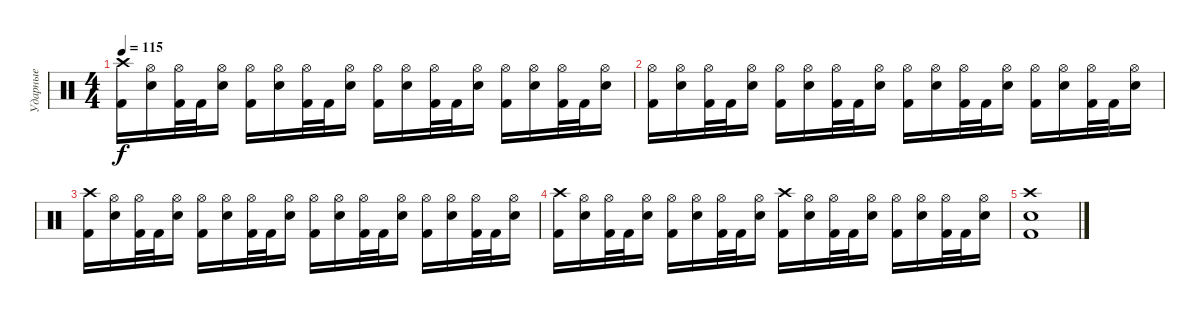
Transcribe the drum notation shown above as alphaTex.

\track ("Ударные" "Ударные") {instrument percussion}
\staff {score}
\articulation defaults
\ts (4 4)
\tempo 115
\clef neutral
\ks c
("Crash high (hit)" "Kick (hit) 2").16{dy f} ("Hi-Hat (open)" "Electric Snare (hit)").16 ("Hi-Hat (open)" "Kick (hit) 2").32 "Kick (hit) 2".32 ("Hi-Hat (open)" "Electric Snare (hit)").16 ("Hi-Hat (open)" "Kick (hit) 2").16 ("Hi-Hat (open)" "Electric Snare (hit)").16 ("Hi-Hat (open)" "Kick (hit) 2").32 "Kick (hit) 2".32 ("Hi-Hat (open)" "Electric Snare (hit)").16 ("Hi-Hat (open)" "Kick (hit) 2").16 ("Hi-Hat (open)" "Electric Snare (hit)").16 ("Hi-Hat (open)" "Kick (hit) 2").32 "Kick (hit) 2".32 ("Hi-Hat (open)" "Electric Snare (hit)").16 ("Hi-Hat (open)" "Kick (hit) 2").16 ("Hi-Hat (open)" "Electric Snare (hit)").16 ("Hi-Hat (open)" "Kick (hit) 2").32 "Kick (hit) 2".32 ("Hi-Hat (open)" "Electric Snare (hit)").16 |
("Hi-Hat (open)" "Kick (hit) 2").16 ("Hi-Hat (open)" "Electric Snare (hit)").16 ("Hi-Hat (open)" "Kick (hit) 2").32 "Kick (hit) 2".32 ("Hi-Hat (open)" "Electric Snare (hit)").16 ("Hi-Hat (open)" "Kick (hit) 2").16 ("Hi-Hat (open)" "Electric Snare (hit)").16 ("Hi-Hat (open)" "Kick (hit) 2").32 "Kick (hit) 2".32 ("Hi-Hat (open)" "Electric Snare (hit)").16 ("Hi-Hat (open)" "Kick (hit) 2").16 ("Hi-Hat (open)" "Electric Snare (hit)").16 ("Hi-Hat (open)" "Kick (hit) 2").32 "Kick (hit) 2".32 ("Hi-Hat (open)" "Electric Snare (hit)").16 ("Hi-Hat (open)" "Kick (hit) 2").16 ("Hi-Hat (open)" "Electric Snare (hit)").16 ("Hi-Hat (open)" "Kick (hit) 2").32 "Kick (hit) 2".32 ("Hi-Hat (open)" "Electric Snare (hit)").16 |
("Crash high (hit)" "Kick (hit) 2").16 ("Hi-Hat (open)" "Electric Snare (hit)").16 ("Hi-Hat (open)" "Kick (hit) 2").32 "Kick (hit) 2".32 ("Hi-Hat (open)" "Electric Snare (hit)").16 ("Hi-Hat (open)" "Kick (hit) 2").16 ("Hi-Hat (open)" "Electric Snare (hit)").16 ("Hi-Hat (open)" "Kick (hit) 2").32 "Kick (hit) 2".32 ("Hi-Hat (open)" "Electric Snare (hit)").16 ("Hi-Hat (open)" "Kick (hit) 2").16 ("Hi-Hat (open)" "Electric Snare (hit)").16 ("Hi-Hat (open)" "Kick (hit) 2").32 "Kick (hit) 2".32 ("Hi-Hat (open)" "Electric Snare (hit)").16 ("Hi-Hat (open)" "Kick (hit) 2").16 ("Hi-Hat (open)" "Electric Snare (hit)").16 ("Hi-Hat (open)" "Kick (hit) 2").32 "Kick (hit) 2".32 ("Hi-Hat (open)" "Electric Snare (hit)").16 |
("Crash high (hit)" "Kick (hit) 2").16 ("Hi-Hat (open)" "Electric Snare (hit)").16 ("Hi-Hat (open)" "Kick (hit) 2").32 "Kick (hit) 2".32 ("Hi-Hat (open)" "Electric Snare (hit)").16 ("Hi-Hat (open)" "Kick (hit) 2").16 ("Hi-Hat (open)" "Electric Snare (hit)").16 ("Hi-Hat (open)" "Kick (hit) 2").32 "Kick (hit) 2".32 ("Hi-Hat (open)" "Electric Snare (hit)").16 ("Crash high (hit)" "Kick (hit) 2").16 ("Hi-Hat (open)" "Electric Snare (hit)").16 ("Hi-Hat (open)" "Kick (hit) 2").32 "Kick (hit) 2".32 ("Hi-Hat (open)" "Electric Snare (hit)").16 ("Hi-Hat (open)" "Kick (hit) 2").16 ("Hi-Hat (open)" "Electric Snare (hit)").16 ("Hi-Hat (open)" "Kick (hit) 2").32 "Kick (hit) 2".32 ("Hi-Hat (open)" "Electric Snare (hit)").16 |
("Crash high (hit)" "Electric Snare (hit)" "Kick (hit) 2").1
